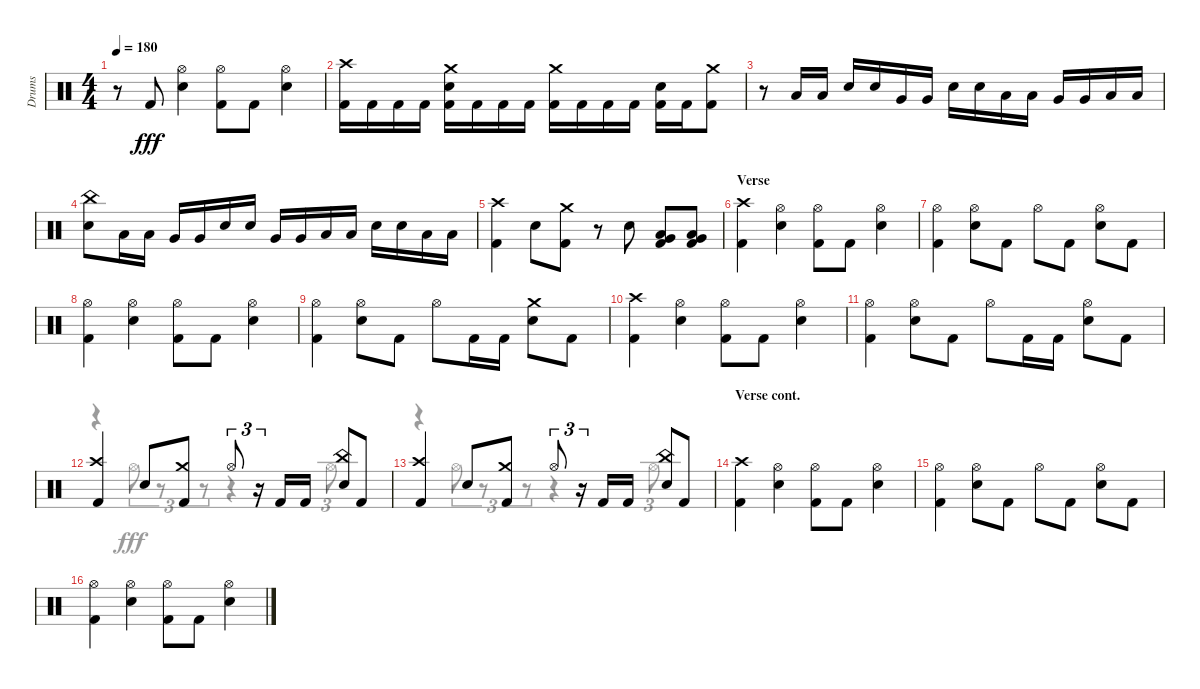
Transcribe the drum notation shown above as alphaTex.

\track ("Drums" "Drums") {instrument percussion}
\staff {score}
\articulation defaults
\voice
\ts (4 4)
\tempo 180
\clef neutral
\ks aminor
r.8{dy fff} "Kick (hit) 2".8 ("Snare (hit) 2" "Hi-Hat (open)").4 ("Kick (hit) 2" "Hi-Hat (open)").8 "Kick (hit) 2".8 ("Snare (hit) 2" "Hi-Hat (open)").4 |
("Kick (hit) 2" "Crash high (hit)").16 "Kick (hit) 2".16 "Kick (hit) 2".16 "Kick (hit) 2".16 ("Kick (hit) 2" "Snare (hit) 2" "Crash medium (hit)").16 "Kick (hit) 2".16 "Kick (hit) 2".16 "Kick (hit) 2".16 ("Kick (hit) 2" "Crash medium (hit)").16 "Kick (hit) 2".16 "Kick (hit) 2".16 "Kick (hit) 2".16 ("Kick (hit) 2" "Snare (hit) 2").16 "Kick (hit) 2".16 ("Kick (hit) 2" "Crash medium (hit)").8 |
r.8 "Low Floor Tom (hit)".16 "Low Floor Tom (hit)".16 "Snare (hit) 2".16 "Snare (hit) 2".16 "Very Low Tom (hit)".16 "Very Low Tom (hit)".16 "Snare (hit) 2".16 "Snare (hit) 2".16 "Low Tom (hit)".16 "Low Tom (hit)".16 "Very Low Tom (hit)".16 "Very Low Tom (hit)".16 "Low Floor Tom (hit)".16 "Low Floor Tom (hit)".16 |
("Snare (hit) 2" "China (hit)").8 "Low Tom (hit)".16 "Low Tom (hit)".16 "Very Low Tom (hit)".16 "Very Low Tom (hit)".16 "Snare (hit) 2".16 "Snare (hit) 2".16 "Very Low Tom (hit)".16 "Very Low Tom (hit)".16 "Low Floor Tom (hit)".16 "Low Floor Tom (hit)".16 "Snare (hit) 2".16 "Snare (hit) 2".16 "Low Floor Tom (hit)".16 "Low Floor Tom (hit)".16 |
("Kick (hit) 2" "Crash high (hit)").4 "Snare (hit) 2".8 ("Kick (hit) 2" "Crash medium (hit)").8 r.8 "Snare (hit) 2".8 ("Kick (hit) 2" "Low Floor Tom (hit)" "Very Low Tom (hit)").8 ("Low Floor Tom (hit)" "Kick (hit) 2" "Very Low Tom (hit)").8 |
\section ("" "Verse")
("Kick (hit) 2" "Crash high (hit)").4 ("Snare (hit) 2" "Hi-Hat (open)").4 ("Kick (hit) 2" "Hi-Hat (open)").8 "Kick (hit) 2".8 ("Snare (hit) 2" "Hi-Hat (open)").4 |
("Kick (hit) 2" "Hi-Hat (open)").4 ("Snare (hit) 2" "Hi-Hat (open)").8 "Kick (hit) 2".8 "Hi-Hat (open)".8 "Kick (hit) 2".8 ("Snare (hit) 2" "Hi-Hat (open)").8 "Kick (hit) 2".8 |
("Kick (hit) 2" "Hi-Hat (open)").4 ("Snare (hit) 2" "Hi-Hat (open)").4 ("Kick (hit) 2" "Hi-Hat (open)").8 "Kick (hit) 2".8 ("Snare (hit) 2" "Hi-Hat (open)").4 |
("Kick (hit) 2" "Hi-Hat (open)").4 ("Snare (hit) 2" "Hi-Hat (open)").8 "Kick (hit) 2".8 "Hi-Hat (open)".8 "Kick (hit) 2".16 "Kick (hit) 2".16 ("Snare (hit) 2" "Crash medium (hit)").8 "Kick (hit) 2".8 |
("Kick (hit) 2" "Crash high (hit)").4 ("Snare (hit) 2" "Hi-Hat (open)").4 ("Kick (hit) 2" "Hi-Hat (open)").8 "Kick (hit) 2".8 ("Snare (hit) 2" "Hi-Hat (open)").4 |
("Kick (hit) 2" "Hi-Hat (open)").4 ("Snare (hit) 2" "Hi-Hat (open)").8 "Kick (hit) 2".8 "Hi-Hat (open)".8 "Kick (hit) 2".16 "Kick (hit) 2".16 ("Snare (hit) 2" "Hi-Hat (open)").8 "Kick (hit) 2".8 |
("Kick (hit) 2" "Crash high (hit)").4 "Snare (hit) 2".8 ("Kick (hit) 2" "Crash medium (hit)").8 "Hi-Hat (open)".8{tu (3 2)} r.16{tu (3 2)} "Kick (hit) 2".16 "Kick (hit) 2".16 ("China (hit)" "Snare (hit) 2").8 "Kick (hit) 2".8 |
("Kick (hit) 2" "Crash high (hit)").4 "Snare (hit) 2".8 ("Crash medium (hit)" "Kick (hit) 2").8 "Hi-Hat (open)".8{tu (3 2)} r.16{tu (3 2)} "Kick (hit) 2".16 "Kick (hit) 2".16 ("China (hit)" "Snare (hit) 2").8 "Kick (hit) 2".8 |
\section ("" "Verse cont.")
("Kick (hit) 2" "Crash high (hit)").4 ("Hi-Hat (open)" "Snare (hit) 2").4 ("Kick (hit) 2" "Hi-Hat (open)").8 "Kick (hit) 2".8 ("Hi-Hat (open)" "Snare (hit) 2").4 |
("Kick (hit) 2" "Hi-Hat (open)").4 ("Snare (hit) 2" "Hi-Hat (open)").8 "Kick (hit) 2".8 "Hi-Hat (open)".8 "Kick (hit) 2".8 ("Hi-Hat (open)" "Snare (hit) 2").8 "Kick (hit) 2".8 |
("Hi-Hat (open)" "Kick (hit) 2").4 ("Hi-Hat (open)" "Snare (hit) 2").4 ("Kick (hit) 2" "Hi-Hat (open)").8 "Kick (hit) 2".8 ("Snare (hit) 2" "Hi-Hat (open)").4
\voice
\clef neutral
\ottava regular
\simile none
\ks aminor
|
|
|
|
|
|
|
|
|
|
|
r.4 "Hi-Hat (open)".8{tu (3 2)} r.8{tu (3 2)} r.8{tu (3 2)} r.4 "Hi-Hat (open)".8{tu (3 2)} |
r.4 "Hi-Hat (open)".8{tu (3 2)} r.8{tu (3 2)} r.8{tu (3 2)} r.4 "Hi-Hat (open)".8{tu (3 2)} |
|
|
